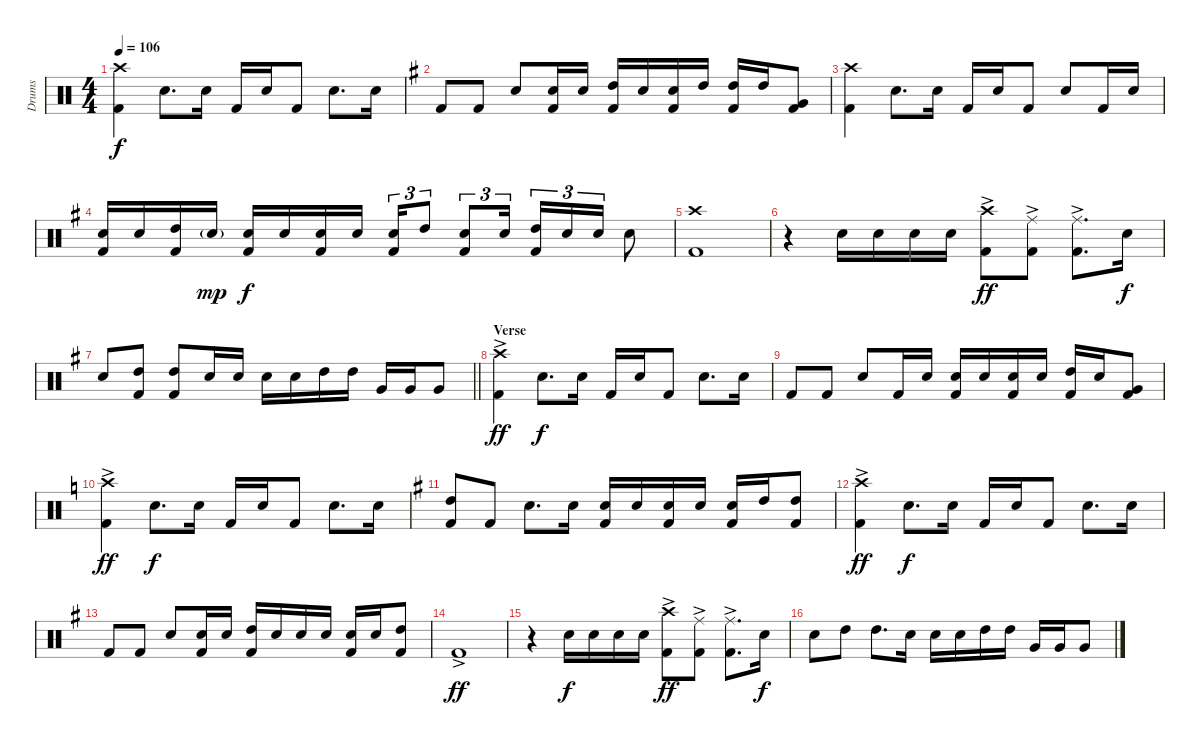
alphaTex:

\track ("Drums" "Drums") {instrument percussion}
\staff {score}
\articulation defaults
\ts (4 4)
\tempo 106
\clef neutral
\ks c
("Crash high (hit)" "Kick (hit) 2").4{dy f} "Snare (hit) 2".8{d} "Snare (hit) 2".16 "Kick (hit) 2".16 "Snare (hit) 2".16 "Kick (hit) 2".8 "Snare (hit) 2".8{d} "Snare (hit) 2".16 |
\ks g "Kick (hit) 2".8 "Kick (hit) 2".8 "Snare (hit) 2".8
("Snare (hit) 2" "Kick (hit) 2").16 "Snare (hit) 2".16 ("High Tom (hit)" "Kick (hit) 2").16 "Snare (hit) 2".16 ("Snare (hit) 2" "Kick (hit) 2").16 "High Tom (hit)".16 ("High Tom (hit)" "Kick (hit) 2").16 "High Tom (hit)".16 ("Very Low Tom (hit)" "Kick (hit) 2").8 |
("Crash high (hit)" "Kick (hit) 2").4 "Snare (hit) 2".8{d} "Snare (hit) 2".16 "Kick (hit) 2".16 "Snare (hit) 2".16 "Kick (hit) 2".8 "Snare (hit) 2".8 "Kick (hit) 2".16 "Snare (hit) 2".16 |
("Snare (hit) 2" "Kick (hit) 2").16 "Snare (hit) 2".16 ("High Tom (hit)" "Kick (hit) 2").16 "Snare (hit) 2"{g}.16{dy mp} ("Snare (hit) 2" "Kick (hit) 2").16{dy f} "Snare (hit) 2".16 ("Snare (hit) 2" "Kick (hit) 2").16 "Snare (hit) 2".16 ("Snare (hit) 2" "Kick (hit) 2").16{tu (3 2)} "High Tom (hit)".8{tu (3 2)} ("Snare (hit) 2" "Kick (hit) 2").8{tu (3 2)} "Snare (hit) 2".16{tu (3 2)} ("High Tom (hit)" "Kick (hit) 2").16{tu (3 2)} "Snare (hit) 2".16{tu (3 2)} "Snare (hit) 2".16{tu (3 2)} "Snare (hit) 2".8 |
("Crash high (hit)" "Kick (hit) 2").1 |
r.4 "Snare (hit) 2".16 "Snare (hit) 2".16 "Snare (hit) 2".16 "Snare (hit) 2".16 ("Crash high (hit)" "Kick (hit) 2"{ac}).8{dy ff} ("Ride (middle)" "Kick (hit) 2"{ac}).8 ("Ride (middle)" "Kick (hit) 2"{ac}).8{d} "Snare (hit) 2".16{dy f} |
\barLineRight lightlight "Snare (hit) 2".8
("High Tom (hit)" "Kick (hit) 2").8 ("High Tom (hit)" "Kick (hit) 2").8 "Snare (hit) 2".16 "Snare (hit) 2".16 "Snare (hit) 2".16 "Snare (hit) 2".16 "High Tom (hit)".16 "High Tom (hit)".16 "Very Low Tom (hit)".16 "Very Low Tom (hit)".16 "Very Low Tom (hit)".8 |
\section ("" "Verse")
("Crash high (hit)" "Kick (hit) 2"{ac}).4{dy ff} "Snare (hit) 2".8{d dy f} "Snare (hit) 2".16 "Kick (hit) 2".16 "Snare (hit) 2".16 "Kick (hit) 2".8 "Snare (hit) 2".8{d} "Snare (hit) 2".16 |
"Kick (hit) 2".8 "Kick (hit) 2".8 "Snare (hit) 2".8 "Kick (hit) 2".16 "Snare (hit) 2".16 ("Snare (hit) 2" "Kick (hit) 2").16 "Snare (hit) 2".16 ("Snare (hit) 2" "Kick (hit) 2").16 "Snare (hit) 2".16 ("High Tom (hit)" "Kick (hit) 2").16 "Snare (hit) 2".16 ("Very Low Tom (hit)" "Kick (hit) 2").8 |
\ks c
("Crash high (hit)" "Kick (hit) 2"{ac}).4{dy ff} "Snare (hit) 2".8{d dy f} "Snare (hit) 2".16 "Kick (hit) 2".16 "Snare (hit) 2".16 "Kick (hit) 2".8 "Snare (hit) 2".8{d} "Snare (hit) 2".16 |
\ks g
("High Tom (hit)" "Kick (hit) 2").8 "Kick (hit) 2".8 "Snare (hit) 2".8{d} "Snare (hit) 2".16 ("Snare (hit) 2" "Kick (hit) 2").16 "Snare (hit) 2".16 ("Snare (hit) 2" "Kick (hit) 2").16 "Snare (hit) 2".16 ("Snare (hit) 2" "Kick (hit) 2").16 "High Tom (hit)".16 ("High Tom (hit)" "Kick (hit) 2").8 |
("Crash high (hit)" "Kick (hit) 2"{ac}).4{dy ff} "Snare (hit) 2".8{d dy f} "Snare (hit) 2".16 "Kick (hit) 2".16 "Snare (hit) 2".16 "Kick (hit) 2".8 "Snare (hit) 2".8{d} "Snare (hit) 2".16 |
"Kick (hit) 2".8 "Kick (hit) 2".8 "Snare (hit) 2".8 ("Snare (hit) 2" "Kick (hit) 2").16 "Snare (hit) 2".16 ("High Tom (hit)" "Kick (hit) 2").16 "Snare (hit) 2".16 "Snare (hit) 2".16 "Snare (hit) 2".16 ("Snare (hit) 2" "Kick (hit) 2").16 "Snare (hit) 2".16 ("High Tom (hit)" "Kick (hit) 2").8 |
"Kick (hit) 2"{ac}.1{dy ff} |
r.4 "Snare (hit) 2".16{dy f} "Snare (hit) 2".16 "Snare (hit) 2".16 "Snare (hit) 2".16 ("Crash high (hit)" "Kick (hit) 2"{ac}).8{dy ff} ("Ride (middle)" "Kick (hit) 2"{ac}).8 ("Ride (middle)" "Kick (hit) 2"{ac}).8{d} "Snare (hit) 2".16{dy f} |
"Snare (hit) 2".8 "High Tom (hit)".8 "High Tom (hit)".8{d} "Snare (hit) 2".16 "Snare (hit) 2".16 "Snare (hit) 2".16 "High Tom (hit)".16 "High Tom (hit)".16 "Very Low Tom (hit)".16 "Very Low Tom (hit)".16 "Very Low Tom (hit)".8
